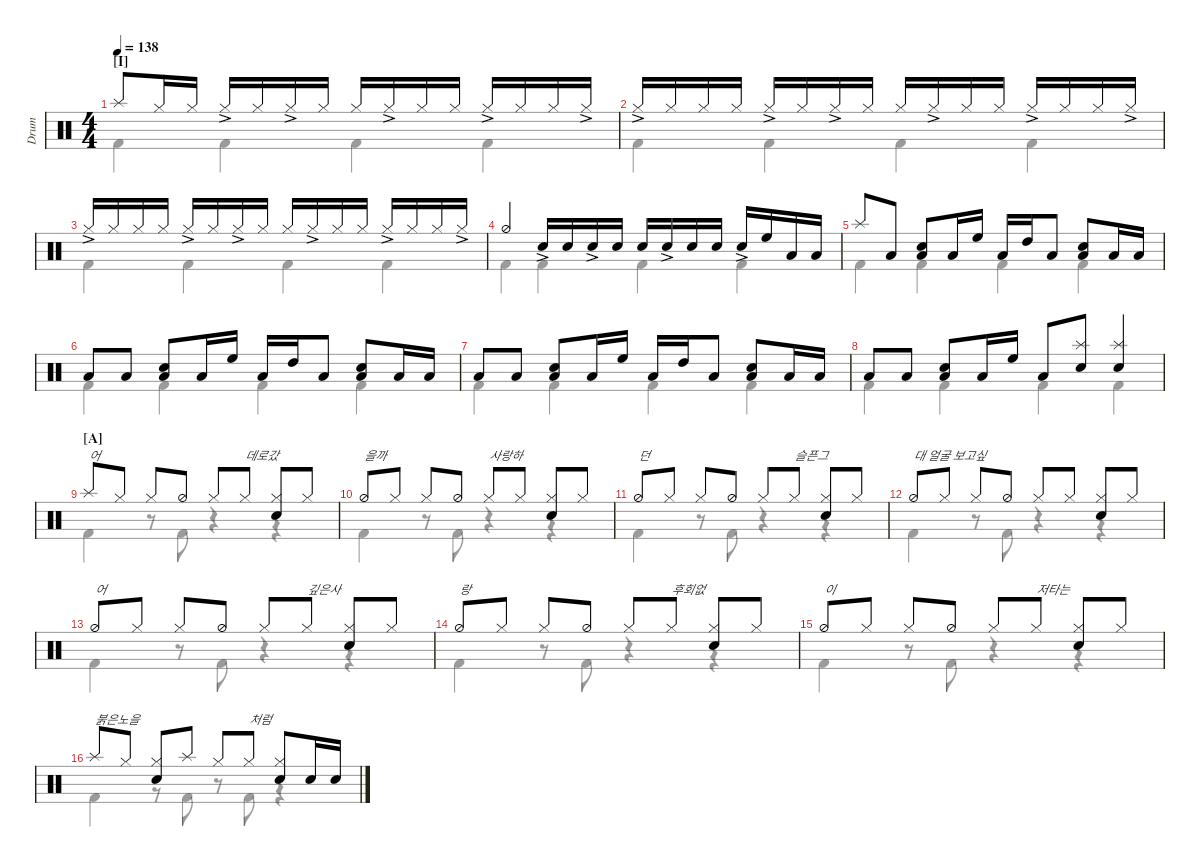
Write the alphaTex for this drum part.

\defaultSystemsLayout 4
\hideDynamics
\bracketExtendMode nobrackets
\track ("Drumkit" "Drum") {instrument percussion}
\staff {score}
\articulation defaults
\voice
\ts (4 4)
\section ("I" "")
\tempo 138
\clef neutral
\ks c "Splash (hit)".8{dy mf beam Up} "Hi-Hat (closed)".16{beam Up} "Hi-Hat (closed)".16{beam Up} "Hi-Hat (closed)"{ac}.16{beam Up} "Hi-Hat (closed)".16{beam Up} "Hi-Hat (closed)"{ac}.16{beam Up} "Hi-Hat (closed)".16{beam Up} "Hi-Hat (closed)".16{beam Up} "Hi-Hat (closed)"{ac}.16{beam Up} "Hi-Hat (closed)".16{beam Up} "Hi-Hat (closed)".16{beam Up} "Hi-Hat (closed)"{ac}.16{beam Up} "Hi-Hat (closed)".16{beam Up} "Hi-Hat (closed)".16{beam Up} "Hi-Hat (closed)"{ac}.16{beam Up}
|
"Hi-Hat (closed)"{ac}.16{beam Up} "Hi-Hat (closed)".16{beam Up} "Hi-Hat (closed)".16{beam Up} "Hi-Hat (closed)".16{beam Up} "Hi-Hat (closed)"{ac}.16{beam Up} "Hi-Hat (closed)".16{beam Up} "Hi-Hat (closed)"{ac}.16{beam Up} "Hi-Hat (closed)".16{beam Up} "Hi-Hat (closed)".16{beam Up} "Hi-Hat (closed)"{ac}.16{beam Up} "Hi-Hat (closed)".16{beam Up} "Hi-Hat (closed)".16{beam Up} "Hi-Hat (closed)"{ac}.16{beam Up} "Hi-Hat (closed)".16{beam Up} "Hi-Hat (closed)".16{beam Up} "Hi-Hat (closed)"{ac}.16{beam Up} |
"Hi-Hat (closed)"{ac}.16{beam Up} "Hi-Hat (closed)".16{beam Up} "Hi-Hat (closed)".16{beam Up} "Hi-Hat (closed)".16{beam Up} "Hi-Hat (closed)"{ac}.16{beam Up} "Hi-Hat (closed)".16{beam Up} "Hi-Hat (closed)"{ac}.16{beam Up} "Hi-Hat (closed)".16{beam Up} "Hi-Hat (closed)".16{beam Up} "Hi-Hat (closed)"{ac}.16{beam Up} "Hi-Hat (closed)".16{beam Up} "Hi-Hat (closed)".16{beam Up} "Hi-Hat (closed)"{ac}.16{beam Up} "Hi-Hat (closed)".16{beam Up} "Hi-Hat (closed)".16{beam Up} "Hi-Hat (closed)"{ac}.16{beam Up} |
"Hi-Hat (half)".4{beam Up} "Snare (hit) 2"{ac}.16{beam Up} "Snare (hit) 2".16{beam Up} "Snare (hit) 2"{ac}.16{beam Up} "Snare (hit) 2".16{beam Up} "Snare (hit) 2".16{beam Up} "Snare (hit) 2"{ac}.16{beam Up} "Snare (hit) 2".16{beam Up} "Snare (hit) 2".16{beam Up} "Snare (hit) 2"{ac}.16{beam Up} "High Floor Tom (hit)".16{beam Up} "Low Tom (hit)".16{beam Up} "Low Tom (hit)".16{beam Up} |
"Splash (hit)".8{beam Up} "Low Tom (hit)".8{beam Up} ("Low Tom (hit)" "Snare (hit) 2").8{beam Up} "Low Tom (hit)".16{beam Up} "High Floor Tom (hit)".16{beam Up} "Low Tom (hit)".16{beam Up} "High Tom (hit)".16{beam Up} "Low Tom (hit)".8{beam Up} ("Low Tom (hit)" "Snare (hit) 2").8{beam Up} "Low Tom (hit)".16{beam Up} "Low Tom (hit)".16{beam Up} |
"Low Tom (hit)".8{beam Up} "Low Tom (hit)".8{beam Up} ("Low Tom (hit)" "Snare (hit) 2").8{beam Up} "Low Tom (hit)".16{beam Up} "High Floor Tom (hit)".16{beam Up} "Low Tom (hit)".16{beam Up} "High Tom (hit)".16{beam Up} "Low Tom (hit)".8{beam Up} ("Low Tom (hit)" "Snare (hit) 2").8{beam Up} "Low Tom (hit)".16{beam Up} "Low Tom (hit)".16{beam Up} |
"Low Tom (hit)".8{beam Up} "Low Tom (hit)".8{beam Up} ("Low Tom (hit)" "Snare (hit) 2").8{beam Up} "Low Tom (hit)".16{beam Up} "High Floor Tom (hit)".16{beam Up} "Low Tom (hit)".16{beam Up} "High Tom (hit)".16{beam Up} "Low Tom (hit)".8{beam Up} ("Low Tom (hit)" "Snare (hit) 2").8{beam Up} "Low Tom (hit)".16{beam Up} "Low Tom (hit)".16{beam Up} |
"Low Tom (hit)".8{beam Up} "Low Tom (hit)".8{beam Up} ("Low Tom (hit)" "Snare (hit) 2").8{beam Up} "Low Tom (hit)".16{beam Up} "High Floor Tom (hit)".16{beam Up} "Low Tom (hit)".8{beam Up} ("Snare (hit) 2" "Splash (hit)").8{beam Up} ("Snare (hit) 2" "Splash (hit)").4{beam Up} |
\section ("A" "")
"Splash (hit)".8{txt "어" beam Up} "Hi-Hat (closed)".8{beam Up} "Hi-Hat (closed)".8{beam Up} "Hi-Hat (half)".8{beam Up} "Hi-Hat (closed)".8{beam Up} "Hi-Hat (closed)".8{txt "데로갔" beam Up} ("Hi-Hat (closed)" "Snare (hit) 2").8{beam Up} "Hi-Hat (closed)".8{beam Up} |
"Hi-Hat (half)".8{txt "을까" beam Up} "Hi-Hat (closed)".8{beam Up} "Hi-Hat (closed)".8{beam Up} "Hi-Hat (half)".8{beam Up} "Hi-Hat (closed)".8{txt "사랑하" beam Up} "Hi-Hat (closed)".8{beam Up} ("Hi-Hat (closed)" "Snare (hit) 2").8{beam Up} "Hi-Hat (closed)".8{beam Up} |
"Hi-Hat (half)".8{txt "던" beam Up} "Hi-Hat (closed)".8{beam Up} "Hi-Hat (closed)".8{beam Up} "Hi-Hat (half)".8{beam Up} "Hi-Hat (closed)".8{beam Up} "Hi-Hat (closed)".8{txt "슬픈그" beam Up} ("Hi-Hat (closed)" "Snare (hit) 2").8{beam Up} "Hi-Hat (closed)".8{beam Up} |
"Hi-Hat (half)".8{txt "대 얼굴 보고싶" beam Up} "Hi-Hat (closed)".8{beam Up} "Hi-Hat (closed)".8{beam Up} "Hi-Hat (half)".8{beam Up} "Hi-Hat (closed)".8{beam Up} "Hi-Hat (closed)".8{beam Up} ("Hi-Hat (closed)" "Snare (hit) 2").8{beam Up} "Hi-Hat (closed)".8{beam Up} |
"Hi-Hat (half)".8{txt "어" beam Up} "Hi-Hat (closed)".8{beam Up} "Hi-Hat (closed)".8{beam Up} "Hi-Hat (half)".8{beam Up} "Hi-Hat (closed)".8{beam Up} "Hi-Hat (closed)".8{txt "깊은사" beam Up} ("Hi-Hat (closed)" "Snare (hit) 2").8{beam Up} "Hi-Hat (closed)".8{beam Up} |
"Hi-Hat (half)".8{txt "랑" beam Up} "Hi-Hat (closed)".8{beam Up} "Hi-Hat (closed)".8{beam Up} "Hi-Hat (half)".8{beam Up} "Hi-Hat (closed)".8{beam Up} "Hi-Hat (closed)".8{txt "후회없" beam Up} ("Hi-Hat (closed)" "Snare (hit) 2").8{beam Up} "Hi-Hat (closed)".8{beam Up} |
"Hi-Hat (half)".8{txt "이" beam Up} "Hi-Hat (closed)".8{beam Up} "Hi-Hat (closed)".8{beam Up} "Hi-Hat (half)".8{beam Up} "Hi-Hat (closed)".8{beam Up} "Hi-Hat (closed)".8{txt "저타는" beam Up} ("Hi-Hat (closed)" "Snare (hit) 2").8{beam Up} "Hi-Hat (closed)".8{beam Up} |
"Splash (hit)".8{txt "붉은노을" beam Up} "Hi-Hat (closed)".8{beam Up} ("Hi-Hat (closed)" "Snare (hit) 2").8{beam Up} "Splash (hit)".8{beam Up} "Hi-Hat (closed)".8{beam Up} "Hi-Hat (closed)".8{txt "처럼" beam Up} ("Hi-Hat (closed)" "Snare (hit) 2").8{beam Up} "Snare (hit) 2".16{beam Up} "Snare (hit) 2".16{beam Up}
\voice
\clef neutral
\ottava regular
\simile none
\ks c
|
|
|
|
|
|
|
|
|
|
|
|
|
|
|
\voice
\clef neutral
\ottava regular
\simile none
\ks c "Kick (hit) 2".4{dy mf beam Down} "Kick (hit) 2".4{beam Down} "Kick (hit) 2".4{beam Down} "Kick (hit) 2".4{beam Down}
|
"Kick (hit) 2".4{beam Down} "Kick (hit) 2".4{beam Down} "Kick (hit) 2".4{beam Down} "Kick (hit) 2".4{beam Down} |
"Kick (hit) 2".4{beam Down} "Kick (hit) 2".4{beam Down} "Kick (hit) 2".4{beam Down} "Kick (hit) 2".4{beam Down} |
"Kick (hit) 2".4{beam Down} "Kick (hit) 2".4{beam Down} "Kick (hit) 2".4{beam Down} "Kick (hit) 2".4{beam Down} |
"Kick (hit) 2".4{beam Down} "Kick (hit) 2".4{beam Down} "Kick (hit) 2".4{beam Down} "Kick (hit) 2".4{beam Down} |
"Kick (hit) 2".4{beam Down} "Kick (hit) 2".4{beam Down} "Kick (hit) 2".4{beam Down} "Kick (hit) 2".4{beam Down} |
"Kick (hit) 2".4{beam Down} "Kick (hit) 2".4{beam Down} "Kick (hit) 2".4{beam Down} "Kick (hit) 2".4{beam Down} |
"Kick (hit) 2".4{beam Down} "Kick (hit) 2".4{beam Down} "Kick (hit) 2".4{beam Down} "Kick (hit) 2".4{beam Down} |
"Kick (hit) 2".4{beam Down} r.8{beam Down} "Kick (hit) 2".8{beam Down} r.4{beam Down} r.4{beam Down} |
"Kick (hit) 2".4{beam Down} r.8{beam Down} "Kick (hit) 2".8{beam Down} r.4{beam Down} r.4{beam Down} |
"Kick (hit) 2".4{beam Down} r.8{beam Down} "Kick (hit) 2".8{beam Down} r.4{beam Down} r.4{beam Down} |
"Kick (hit) 2".4{beam Down} r.8{beam Down} "Kick (hit) 2".8{beam Down} r.4{beam Down} r.4{beam Down} |
"Kick (hit) 2".4{beam Down} r.8{beam Down} "Kick (hit) 2".8{beam Down} r.4{beam Down} r.4{beam Down} |
"Kick (hit) 2".4{beam Down} r.8{beam Down} "Kick (hit) 2".8{beam Down} r.4{beam Down} r.4{beam Down} |
"Kick (hit) 2".4{beam Down} r.8{beam Down} "Kick (hit) 2".8{beam Down} r.4{beam Down} r.4{beam Down} |
"Kick (hit) 2".4{beam Down} r.8{beam Down} "Kick (hit) 2".8{beam Down} r.8{beam Down} "Kick (hit) 2".8{beam Down} r.4{beam Down}
